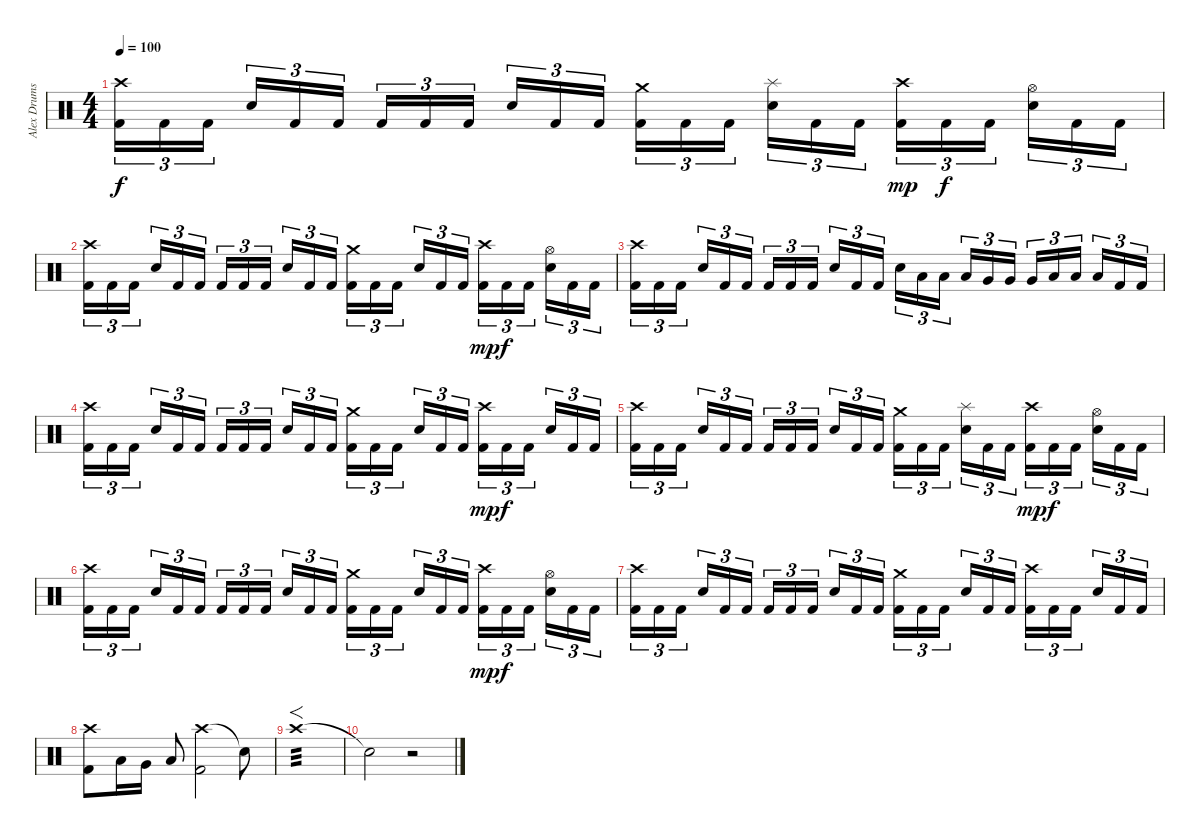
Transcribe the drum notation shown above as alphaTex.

\track ("Alex Drums" "Alex Drums") {instrument percussion}
\staff {score}
\articulation defaults
\ts (4 4)
\tempo 100
\clef neutral
\ks c
("Crash high (hit)" "Kick (hit) 2").16{tu (3 2) dy f} "Kick (hit) 2".16{tu (3 2)} "Kick (hit) 2".16{tu (3 2)} "Electric Snare (hit)".16{tu (3 2)} "Kick (hit) 2".16{tu (3 2)} "Kick (hit) 2".16{tu (3 2)} "Kick (hit) 2".16{tu (3 2)} "Kick (hit) 2".16{tu (3 2)} "Kick (hit) 2".16{tu (3 2)} "Electric Snare (hit)".16{tu (3 2)} "Kick (hit) 2".16{tu (3 2)} "Kick (hit) 2".16{tu (3 2)} ("Crash medium (hit)" "Kick (hit) 2").16{tu (3 2)} "Kick (hit) 2".16{tu (3 2)} "Kick (hit) 2".16{tu (3 2)} ("Splash (hit)" "Electric Snare (hit)").16{tu (3 2)} "Kick (hit) 2".16{tu (3 2)} "Kick (hit) 2".16{tu (3 2)} ("Crash high (hit)" "Kick (hit) 2").16{tu (3 2) dy mp} "Kick (hit) 2".16{tu (3 2) dy f} "Kick (hit) 2".16{tu (3 2)} ("Hi-Hat (open)" "Electric Snare (hit)").16{tu (3 2)} "Kick (hit) 2".16{tu (3 2)} "Kick (hit) 2".16{tu (3 2)} |
("Crash high (hit)" "Kick (hit) 2").16{tu (3 2)} "Kick (hit) 2".16{tu (3 2)} "Kick (hit) 2".16{tu (3 2)} "Electric Snare (hit)".16{tu (3 2)} "Kick (hit) 2".16{tu (3 2)} "Kick (hit) 2".16{tu (3 2)} "Kick (hit) 2".16{tu (3 2)} "Kick (hit) 2".16{tu (3 2)} "Kick (hit) 2".16{tu (3 2)} "Electric Snare (hit)".16{tu (3 2)} "Kick (hit) 2".16{tu (3 2)} "Kick (hit) 2".16{tu (3 2)} ("Crash medium (hit)" "Kick (hit) 2").16{tu (3 2)} "Kick (hit) 2".16{tu (3 2)} "Kick (hit) 2".16{tu (3 2)} "Electric Snare (hit)".16{tu (3 2)} "Kick (hit) 2".16{tu (3 2)} "Kick (hit) 2".16{tu (3 2)} ("Crash high (hit)" "Kick (hit) 2").16{tu (3 2) dy mp} "Kick (hit) 2".16{tu (3 2) dy f} "Kick (hit) 2".16{tu (3 2)} ("Hi-Hat (open)" "Electric Snare (hit)").16{tu (3 2)} "Kick (hit) 2".16{tu (3 2)} "Kick (hit) 2".16{tu (3 2)} |
("Crash high (hit)" "Kick (hit) 2").16{tu (3 2)} "Kick (hit) 2".16{tu (3 2)} "Kick (hit) 2".16{tu (3 2)} "Electric Snare (hit)".16{tu (3 2)} "Kick (hit) 2".16{tu (3 2)} "Kick (hit) 2".16{tu (3 2)} "Kick (hit) 2".16{tu (3 2)} "Kick (hit) 2".16{tu (3 2)} "Kick (hit) 2".16{tu (3 2)} "Electric Snare (hit)".16{tu (3 2)} "Kick (hit) 2".16{tu (3 2)} "Kick (hit) 2".16{tu (3 2)} "Electric Snare (hit)".16{tu (3 2)} "Low Tom (hit)".16{tu (3 2)} "Low Tom (hit)".16{tu (3 2)} "Low Tom (hit)".16{tu (3 2)} "Very Low Tom (hit)".16{tu (3 2)} "Very Low Tom (hit)".16{tu (3 2)} "Very Low Tom (hit)".16{tu (3 2)} "Low Floor Tom (hit)".16{tu (3 2)} "Low Floor Tom (hit)".16{tu (3 2)} "Low Floor Tom (hit)".16{tu (3 2)} "Kick (hit) 2".16{tu (3 2)} "Kick (hit) 2".16{tu (3 2)} |
("Crash high (hit)" "Kick (hit) 2").16{tu (3 2)} "Kick (hit) 2".16{tu (3 2)} "Kick (hit) 2".16{tu (3 2)} "Electric Snare (hit)".16{tu (3 2)} "Kick (hit) 2".16{tu (3 2)} "Kick (hit) 2".16{tu (3 2)} "Kick (hit) 2".16{tu (3 2)} "Kick (hit) 2".16{tu (3 2)} "Kick (hit) 2".16{tu (3 2)} "Electric Snare (hit)".16{tu (3 2)} "Kick (hit) 2".16{tu (3 2)} "Kick (hit) 2".16{tu (3 2)} ("Crash medium (hit)" "Kick (hit) 2").16{tu (3 2)} "Kick (hit) 2".16{tu (3 2)} "Kick (hit) 2".16{tu (3 2)} "Electric Snare (hit)".16{tu (3 2)} "Kick (hit) 2".16{tu (3 2)} "Kick (hit) 2".16{tu (3 2)} ("Crash high (hit)" "Kick (hit) 2").16{tu (3 2) dy mp} "Kick (hit) 2".16{tu (3 2) dy f} "Kick (hit) 2".16{tu (3 2)} "Electric Snare (hit)".16{tu (3 2)} "Kick (hit) 2".16{tu (3 2)} "Kick (hit) 2".16{tu (3 2)} |
("Crash high (hit)" "Kick (hit) 2").16{tu (3 2)} "Kick (hit) 2".16{tu (3 2)} "Kick (hit) 2".16{tu (3 2)} "Electric Snare (hit)".16{tu (3 2)} "Kick (hit) 2".16{tu (3 2)} "Kick (hit) 2".16{tu (3 2)} "Kick (hit) 2".16{tu (3 2)} "Kick (hit) 2".16{tu (3 2)} "Kick (hit) 2".16{tu (3 2)} "Electric Snare (hit)".16{tu (3 2)} "Kick (hit) 2".16{tu (3 2)} "Kick (hit) 2".16{tu (3 2)} ("Crash medium (hit)" "Kick (hit) 2").16{tu (3 2)} "Kick (hit) 2".16{tu (3 2)} "Kick (hit) 2".16{tu (3 2)} ("Splash (hit)" "Electric Snare (hit)").16{tu (3 2)} "Kick (hit) 2".16{tu (3 2)} "Kick (hit) 2".16{tu (3 2)} ("Crash high (hit)" "Kick (hit) 2").16{tu (3 2) dy mp} "Kick (hit) 2".16{tu (3 2) dy f} "Kick (hit) 2".16{tu (3 2)} ("Hi-Hat (open)" "Electric Snare (hit)").16{tu (3 2)} "Kick (hit) 2".16{tu (3 2)} "Kick (hit) 2".16{tu (3 2)} |
("Crash high (hit)" "Kick (hit) 2").16{tu (3 2)} "Kick (hit) 2".16{tu (3 2)} "Kick (hit) 2".16{tu (3 2)} "Electric Snare (hit)".16{tu (3 2)} "Kick (hit) 2".16{tu (3 2)} "Kick (hit) 2".16{tu (3 2)} "Kick (hit) 2".16{tu (3 2)} "Kick (hit) 2".16{tu (3 2)} "Kick (hit) 2".16{tu (3 2)} "Electric Snare (hit)".16{tu (3 2)} "Kick (hit) 2".16{tu (3 2)} "Kick (hit) 2".16{tu (3 2)} ("Crash medium (hit)" "Kick (hit) 2").16{tu (3 2)} "Kick (hit) 2".16{tu (3 2)} "Kick (hit) 2".16{tu (3 2)} "Electric Snare (hit)".16{tu (3 2)} "Kick (hit) 2".16{tu (3 2)} "Kick (hit) 2".16{tu (3 2)} ("Crash high (hit)" "Kick (hit) 2").16{tu (3 2) dy mp} "Kick (hit) 2".16{tu (3 2) dy f} "Kick (hit) 2".16{tu (3 2)} ("Hi-Hat (open)" "Electric Snare (hit)").16{tu (3 2)} "Kick (hit) 2".16{tu (3 2)} "Kick (hit) 2".16{tu (3 2)} |
("Crash high (hit)" "Kick (hit) 2").16{tu (3 2)} "Kick (hit) 2".16{tu (3 2)} "Kick (hit) 2".16{tu (3 2)} "Electric Snare (hit)".16{tu (3 2)} "Kick (hit) 2".16{tu (3 2)} "Kick (hit) 2".16{tu (3 2)} "Kick (hit) 2".16{tu (3 2)} "Kick (hit) 2".16{tu (3 2)} "Kick (hit) 2".16{tu (3 2)} "Electric Snare (hit)".16{tu (3 2)} "Kick (hit) 2".16{tu (3 2)} "Kick (hit) 2".16{tu (3 2)} ("Crash medium (hit)" "Kick (hit) 2").16{tu (3 2)} "Kick (hit) 2".16{tu (3 2)} "Kick (hit) 2".16{tu (3 2)} "Electric Snare (hit)".16{tu (3 2)} "Kick (hit) 2".16{tu (3 2)} "Kick (hit) 2".16{tu (3 2)} ("Crash high (hit)" "Kick (hit) 2").16{tu (3 2)} "Kick (hit) 2".16{tu (3 2)} "Kick (hit) 2".16{tu (3 2)} "Electric Snare (hit)".16{tu (3 2)} "Kick (hit) 2".16{tu (3 2)} "Kick (hit) 2".16{tu (3 2)} |
("Crash high (hit)" "Kick (hit) 2").8 "Low Tom (hit)".16 "Very Low Tom (hit)".16 "Low Floor Tom (hit)".8 ("Crash high (hit)" "Kick (hit) 2").2 "Snare (hit)"{t}.8 |
"Crash high (hit)".1{f tp 3} |
"Snare (hit)"{t}.2 r.2
